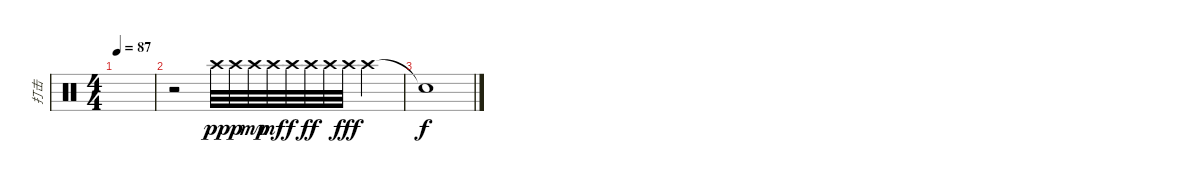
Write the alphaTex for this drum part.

\track ("打击" "打击") {instrument percussion}
\staff {score}
\articulation defaults
\ts (4 4)
\tempo 87
\clef neutral
\ks c
|
r.2 "Crash high (hit)".32{dy pp} "Crash high (hit)".32{dy p} "Crash high (hit)".32{dy mp} "Crash high (hit)".32{dy mf} "Crash high (hit)".32{dy f} "Crash high (hit)".32{dy ff} "Crash high (hit)".32 "Crash high (hit)".32{dy fff} "Crash high (hit)".4 |
"Snare (hit)"{t}.1{dy f}
